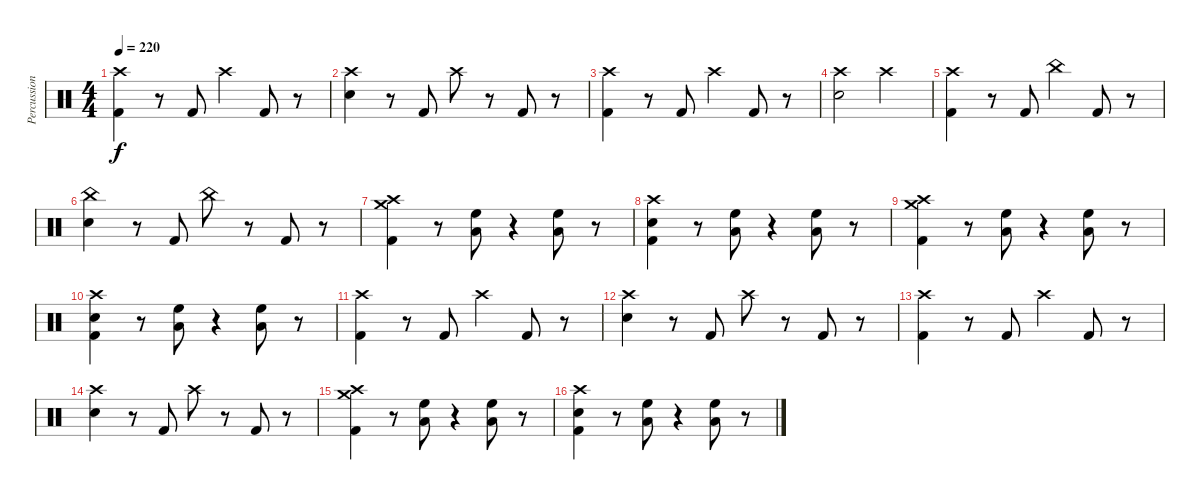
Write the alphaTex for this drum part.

\track ("Percussion" "Percussion") {instrument percussion}
\staff {score}
\articulation defaults
\ts (4 4)
\tempo 220
\clef neutral
\ks c
("Crash high (hit)" "Kick (hit) 2").4{dy f} r.8 "Kick (hit) 2".8 "Crash high (hit)".4 "Kick (hit) 2".8 r.8 |
("Crash high (hit)" "Snare (hit) 2").4 r.8 "Kick (hit) 2".8 "Crash high (hit)".8 r.8 "Kick (hit) 2".8 r.8 |
("Crash high (hit)" "Kick (hit) 2").4 r.8 "Kick (hit) 2".8 "Crash high (hit)".4 "Kick (hit) 2".8 r.8 |
("Crash high (hit)" "Snare (hit) 2").2 "Crash high (hit)".2 |
("Crash high (hit)" "Kick (hit) 2").4 r.8 "Kick (hit) 2".8 "China (hit)".4 "Kick (hit) 2".8 r.8 |
("China (hit)" "Snare (hit) 2").4 r.8 "Kick (hit) 2".8 "China (hit)".8 r.8 "Kick (hit) 2".8 r.8 |
("Crash medium (hit)" "Crash high (hit)" "Kick (hit) 2").4 r.8 ("High Floor Tom (hit)" "Low Floor Tom (hit)").8 r.4 ("High Floor Tom (hit)" "Low Floor Tom (hit)").8 r.8 |
("Crash high (hit)" "Snare (hit) 2" "Kick (hit) 2").4 r.8 ("High Floor Tom (hit)" "Low Floor Tom (hit)").8 r.4 ("High Floor Tom (hit)" "Low Floor Tom (hit)").8 r.8 |
("Crash medium (hit)" "Crash high (hit)" "Kick (hit) 2").4 r.8 ("High Floor Tom (hit)" "Low Floor Tom (hit)").8 r.4 ("High Floor Tom (hit)" "Low Floor Tom (hit)").8 r.8 |
("Crash high (hit)" "Snare (hit) 2" "Kick (hit) 2").4 r.8 ("High Floor Tom (hit)" "Low Floor Tom (hit)").8 r.4 ("High Floor Tom (hit)" "Low Floor Tom (hit)").8 r.8 |
("Crash high (hit)" "Kick (hit) 2").4 r.8 "Kick (hit) 2".8 "Crash high (hit)".4 "Kick (hit) 2".8 r.8 |
("Crash high (hit)" "Snare (hit) 2").4 r.8 "Kick (hit) 2".8 "Crash high (hit)".8 r.8 "Kick (hit) 2".8 r.8 |
("Crash high (hit)" "Kick (hit) 2").4 r.8 "Kick (hit) 2".8 "Crash high (hit)".4 "Kick (hit) 2".8 r.8 |
("Crash high (hit)" "Snare (hit) 2").4 r.8 "Kick (hit) 2".8 "Crash high (hit)".8 r.8 "Kick (hit) 2".8 r.8 |
("Crash medium (hit)" "Crash high (hit)" "Kick (hit) 2").4 r.8 ("High Floor Tom (hit)" "Low Floor Tom (hit)").8 r.4 ("High Floor Tom (hit)" "Low Floor Tom (hit)").8 r.8 |
("Crash high (hit)" "Snare (hit) 2" "Kick (hit) 2").4 r.8 ("High Floor Tom (hit)" "Low Floor Tom (hit)").8 r.4 ("High Floor Tom (hit)" "Low Floor Tom (hit)").8 r.8
